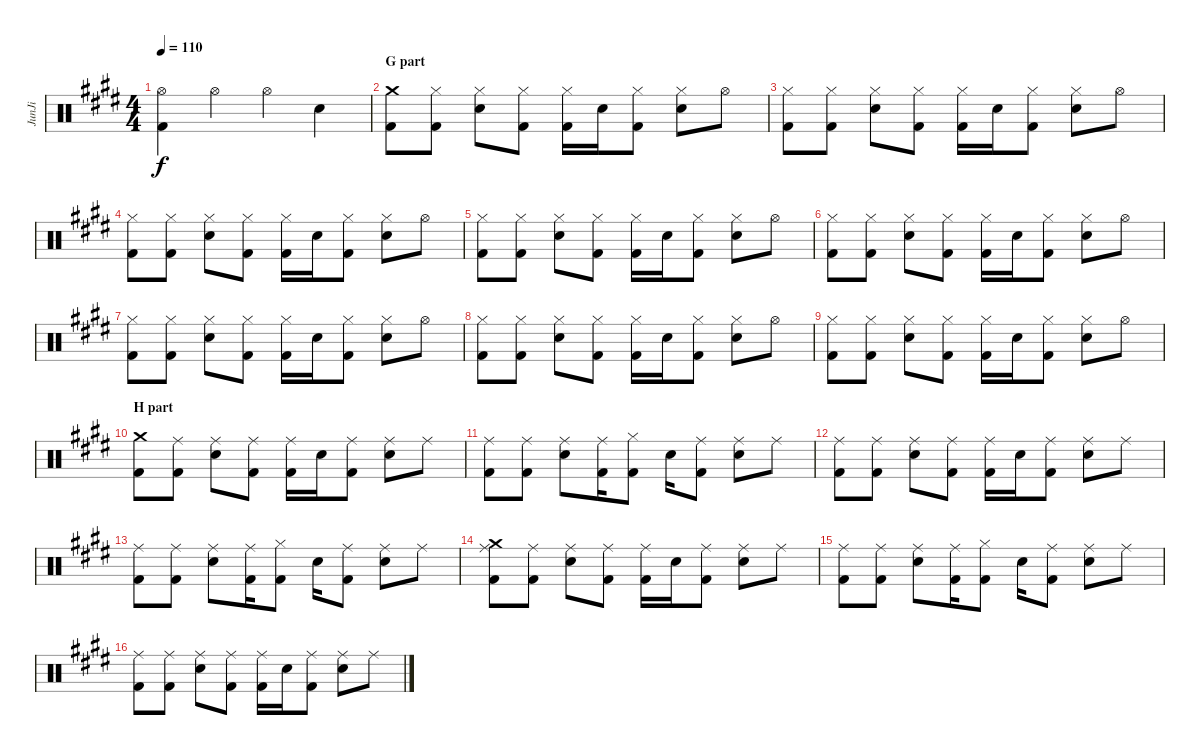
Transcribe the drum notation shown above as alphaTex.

\track ("JunJi" "JunJi") {instrument percussion}
\staff {score}
\articulation defaults
\ts (4 4)
\tempo 110
\clef neutral
\ks c#minor
("Hi-Hat (open)" "Kick (hit) 2").4{dy f} "Hi-Hat (open)".4 "Hi-Hat (open)".4 "Snare (hit) 2".4 |
\section ("" "G part")
("Crash medium (hit)" "Kick (hit) 2").8 ("Hi-Hat (closed)" "Kick (hit) 2").8 ("Hi-Hat (closed)" "Snare (hit) 2").8 ("Hi-Hat (closed)" "Kick (hit) 2").8 ("Hi-Hat (closed)" "Kick (hit) 2").16 "Snare (hit) 2".16 ("Hi-Hat (closed)" "Kick (hit) 2").8 ("Hi-Hat (closed)" "Snare (hit) 2").8 "Hi-Hat (open)".8 |
("Hi-Hat (closed)" "Kick (hit) 2").8 ("Hi-Hat (closed)" "Kick (hit) 2").8 ("Hi-Hat (closed)" "Snare (hit) 2").8 ("Hi-Hat (closed)" "Kick (hit) 2").8 ("Hi-Hat (closed)" "Kick (hit) 2").16 "Snare (hit) 2".16 ("Hi-Hat (closed)" "Kick (hit) 2").8 ("Hi-Hat (closed)" "Snare (hit) 2").8 "Hi-Hat (open)".8 |
("Hi-Hat (closed)" "Kick (hit) 2").8 ("Hi-Hat (closed)" "Kick (hit) 2").8 ("Hi-Hat (closed)" "Snare (hit) 2").8 ("Hi-Hat (closed)" "Kick (hit) 2").8 ("Hi-Hat (closed)" "Kick (hit) 2").16 "Snare (hit) 2".16 ("Hi-Hat (closed)" "Kick (hit) 2").8 ("Hi-Hat (closed)" "Snare (hit) 2").8 "Hi-Hat (open)".8 |
("Hi-Hat (closed)" "Kick (hit) 2").8 ("Hi-Hat (closed)" "Kick (hit) 2").8 ("Hi-Hat (closed)" "Snare (hit) 2").8 ("Hi-Hat (closed)" "Kick (hit) 2").8 ("Hi-Hat (closed)" "Kick (hit) 2").16 "Snare (hit) 2".16 ("Hi-Hat (closed)" "Kick (hit) 2").8 ("Hi-Hat (closed)" "Snare (hit) 2").8 "Hi-Hat (open)".8 |
("Hi-Hat (closed)" "Kick (hit) 2").8 ("Hi-Hat (closed)" "Kick (hit) 2").8 ("Hi-Hat (closed)" "Snare (hit) 2").8 ("Hi-Hat (closed)" "Kick (hit) 2").8 ("Hi-Hat (closed)" "Kick (hit) 2").16 "Snare (hit) 2".16 ("Hi-Hat (closed)" "Kick (hit) 2").8 ("Hi-Hat (closed)" "Snare (hit) 2").8 "Hi-Hat (open)".8 |
("Hi-Hat (closed)" "Kick (hit) 2").8 ("Hi-Hat (closed)" "Kick (hit) 2").8 ("Hi-Hat (closed)" "Snare (hit) 2").8 ("Hi-Hat (closed)" "Kick (hit) 2").8 ("Hi-Hat (closed)" "Kick (hit) 2").16 "Snare (hit) 2".16 ("Hi-Hat (closed)" "Kick (hit) 2").8 ("Hi-Hat (closed)" "Snare (hit) 2").8 "Hi-Hat (open)".8 |
("Hi-Hat (closed)" "Kick (hit) 2").8 ("Hi-Hat (closed)" "Kick (hit) 2").8 ("Hi-Hat (closed)" "Snare (hit) 2").8 ("Hi-Hat (closed)" "Kick (hit) 2").8 ("Hi-Hat (closed)" "Kick (hit) 2").16 "Snare (hit) 2".16 ("Hi-Hat (closed)" "Kick (hit) 2").8 ("Hi-Hat (closed)" "Snare (hit) 2").8 "Hi-Hat (open)".8 |
("Hi-Hat (closed)" "Kick (hit) 2").8 ("Hi-Hat (closed)" "Kick (hit) 2").8 ("Hi-Hat (closed)" "Snare (hit) 2").8 ("Hi-Hat (closed)" "Kick (hit) 2").8 ("Hi-Hat (closed)" "Kick (hit) 2").16 "Snare (hit) 2".16 ("Hi-Hat (closed)" "Kick (hit) 2").8 ("Hi-Hat (closed)" "Snare (hit) 2").8 "Hi-Hat (open)".8 |
\section ("" "H part")
("Crash medium (hit)" "Kick (hit) 2").8 ("Ride (middle)" "Kick (hit) 2").8 ("Ride (middle)" "Snare (hit) 2").8 ("Ride (middle)" "Kick (hit) 2").8 ("Ride (middle)" "Kick (hit) 2").16 "Snare (hit) 2".16 ("Ride (middle)" "Kick (hit) 2").8 ("Ride (middle)" "Snare (hit) 2").8 "Ride (middle)".8 |
("Ride (middle)" "Kick (hit) 2").8 ("Ride (middle)" "Kick (hit) 2").8 ("Ride (middle)" "Snare (hit) 2").8 ("Ride (middle)" "Kick (hit) 2").16 ("Hi-Hat (closed)" "Kick (hit) 2").8 "Snare (hit) 2".16 ("Ride (middle)" "Kick (hit) 2").8 ("Ride (middle)" "Snare (hit) 2").8 "Ride (middle)".8 |
("Ride (middle)" "Kick (hit) 2").8 ("Ride (middle)" "Kick (hit) 2").8 ("Ride (middle)" "Snare (hit) 2").8 ("Ride (middle)" "Kick (hit) 2").8 ("Ride (middle)" "Kick (hit) 2").16 "Snare (hit) 2".16 ("Ride (middle)" "Kick (hit) 2").8 ("Ride (middle)" "Snare (hit) 2").8 "Ride (middle)".8 |
("Ride (middle)" "Kick (hit) 2").8 ("Ride (middle)" "Kick (hit) 2").8 ("Ride (middle)" "Snare (hit) 2").8 ("Ride (middle)" "Kick (hit) 2").16 ("Hi-Hat (closed)" "Kick (hit) 2").8 "Snare (hit) 2".16 ("Ride (middle)" "Kick (hit) 2").8 ("Ride (middle)" "Snare (hit) 2").8 "Ride (middle)".8 |
("Ride (middle)" "Kick (hit) 2" "Crash medium (hit)").8 ("Ride (middle)" "Kick (hit) 2").8 ("Ride (middle)" "Snare (hit) 2").8 ("Ride (middle)" "Kick (hit) 2").8 ("Ride (middle)" "Kick (hit) 2").16 "Snare (hit) 2".16 ("Ride (middle)" "Kick (hit) 2").8 ("Ride (middle)" "Snare (hit) 2").8 "Ride (middle)".8 |
("Ride (middle)" "Kick (hit) 2").8 ("Ride (middle)" "Kick (hit) 2").8 ("Ride (middle)" "Snare (hit) 2").8 ("Ride (middle)" "Kick (hit) 2").16 ("Hi-Hat (closed)" "Kick (hit) 2").8 "Snare (hit) 2".16 ("Ride (middle)" "Kick (hit) 2").8 ("Ride (middle)" "Snare (hit) 2").8 "Ride (middle)".8 |
("Ride (middle)" "Kick (hit) 2").8 ("Ride (middle)" "Kick (hit) 2").8 ("Ride (middle)" "Snare (hit) 2").8 ("Ride (middle)" "Kick (hit) 2").8 ("Ride (middle)" "Kick (hit) 2").16 "Snare (hit) 2".16 ("Ride (middle)" "Kick (hit) 2").8 ("Ride (middle)" "Snare (hit) 2").8 "Ride (middle)".8
